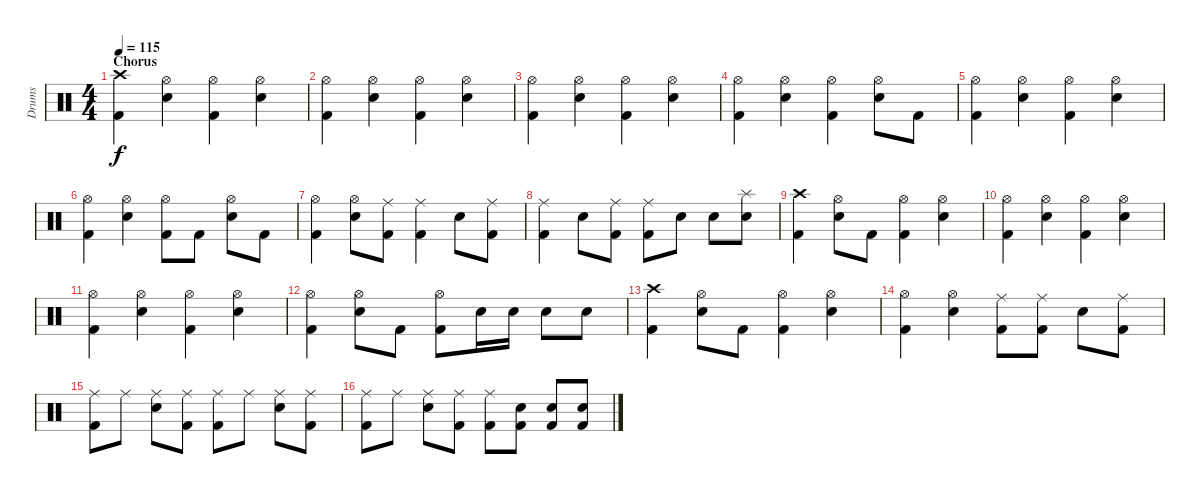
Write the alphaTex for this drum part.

\track ("Drums" "Drums") {instrument percussion}
\staff {score}
\articulation defaults
\ts (4 4)
\section ("" "Chorus")
\tempo 115
\clef neutral
\ks c
("Crash high (hit)" "Kick (hit) 2").4{dy f} ("Hi-Hat (open)" "Electric Snare (hit)").4 ("Hi-Hat (open)" "Kick (hit) 2").4 ("Hi-Hat (open)" "Electric Snare (hit)").4 |
("Hi-Hat (open)" "Kick (hit) 2").4 ("Hi-Hat (open)" "Electric Snare (hit)").4 ("Hi-Hat (open)" "Kick (hit) 2").4 ("Hi-Hat (open)" "Electric Snare (hit)").4 |
("Hi-Hat (open)" "Kick (hit) 2").4 ("Hi-Hat (open)" "Electric Snare (hit)").4 ("Hi-Hat (open)" "Kick (hit) 2").4 ("Hi-Hat (open)" "Electric Snare (hit)").4 |
("Hi-Hat (open)" "Kick (hit) 2").4 ("Hi-Hat (open)" "Electric Snare (hit)").4 ("Hi-Hat (open)" "Kick (hit) 2").4 ("Hi-Hat (open)" "Electric Snare (hit)").8 "Kick (hit) 2".8 |
("Hi-Hat (open)" "Kick (hit) 2").4 ("Hi-Hat (open)" "Electric Snare (hit)").4 ("Hi-Hat (open)" "Kick (hit) 2").4 ("Hi-Hat (open)" "Electric Snare (hit)").4 |
("Hi-Hat (open)" "Kick (hit) 2").4 ("Hi-Hat (open)" "Electric Snare (hit)").4 ("Hi-Hat (open)" "Kick (hit) 2").8 "Kick (hit) 2".8 ("Hi-Hat (open)" "Electric Snare (hit)").8 "Kick (hit) 2".8 |
("Hi-Hat (open)" "Kick (hit) 2").4 ("Hi-Hat (open)" "Electric Snare (hit)").8 ("Ride (middle)" "Kick (hit) 2").8 ("Ride (middle)" "Kick (hit) 2").4 "Electric Snare (hit)".8 ("Ride (middle)" "Kick (hit) 2").8 |
("Ride (middle)" "Kick (hit) 2").4 "Electric Snare (hit)".8 ("Ride (middle)" "Kick (hit) 2").8 ("Ride (middle)" "Kick (hit) 2").8 "Electric Snare (hit)".8 "Electric Snare (hit)".8 ("Splash (hit)" "Electric Snare (hit)").8 |
("Crash high (hit)" "Kick (hit) 2").4 ("Hi-Hat (open)" "Electric Snare (hit)").8 "Kick (hit) 2".8 ("Hi-Hat (open)" "Kick (hit) 2").4 ("Hi-Hat (open)" "Electric Snare (hit)").4 |
("Hi-Hat (open)" "Kick (hit) 2").4 ("Hi-Hat (open)" "Electric Snare (hit)").4 ("Hi-Hat (open)" "Kick (hit) 2").4 ("Hi-Hat (open)" "Electric Snare (hit)").4 |
("Hi-Hat (open)" "Kick (hit) 2").4 ("Hi-Hat (open)" "Electric Snare (hit)").4 ("Hi-Hat (open)" "Kick (hit) 2").4 ("Hi-Hat (open)" "Electric Snare (hit)").4 |
("Hi-Hat (open)" "Kick (hit) 2").4 ("Hi-Hat (open)" "Electric Snare (hit)").8 "Kick (hit) 2".8 ("Hi-Hat (open)" "Kick (hit) 2").8 "Electric Snare (hit)".16 "Electric Snare (hit)".16 "Electric Snare (hit)".8 "Electric Snare (hit)".8 |
("Crash high (hit)" "Kick (hit) 2").4 ("Hi-Hat (open)" "Electric Snare (hit)").8 "Kick (hit) 2".8 ("Hi-Hat (open)" "Kick (hit) 2").4 ("Hi-Hat (open)" "Electric Snare (hit)").4 |
("Hi-Hat (open)" "Kick (hit) 2").4 ("Hi-Hat (open)" "Electric Snare (hit)").4 ("Ride (middle)" "Kick (hit) 2").8 ("Ride (middle)" "Kick (hit) 2").8 "Electric Snare (hit)".8 ("Ride (middle)" "Kick (hit) 2").8 |
("Ride (middle)" "Kick (hit) 2").8 "Ride (middle)".8 ("Ride (middle)" "Electric Snare (hit)").8 ("Ride (middle)" "Kick (hit) 2").8 ("Ride (middle)" "Kick (hit) 2").8 "Ride (middle)".8 ("Ride (middle)" "Electric Snare (hit)").8 ("Ride (middle)" "Kick (hit) 2").8 |
("Ride (middle)" "Kick (hit) 2").8 "Ride (middle)".8 ("Ride (middle)" "Electric Snare (hit)").8 ("Ride (middle)" "Kick (hit) 2").8 ("Ride (middle)" "Kick (hit) 2").8 ("Electric Snare (hit)" "Kick (hit) 2").8 ("Electric Snare (hit)" "Kick (hit) 2").8 ("Electric Snare (hit)" "Kick (hit) 2").8
